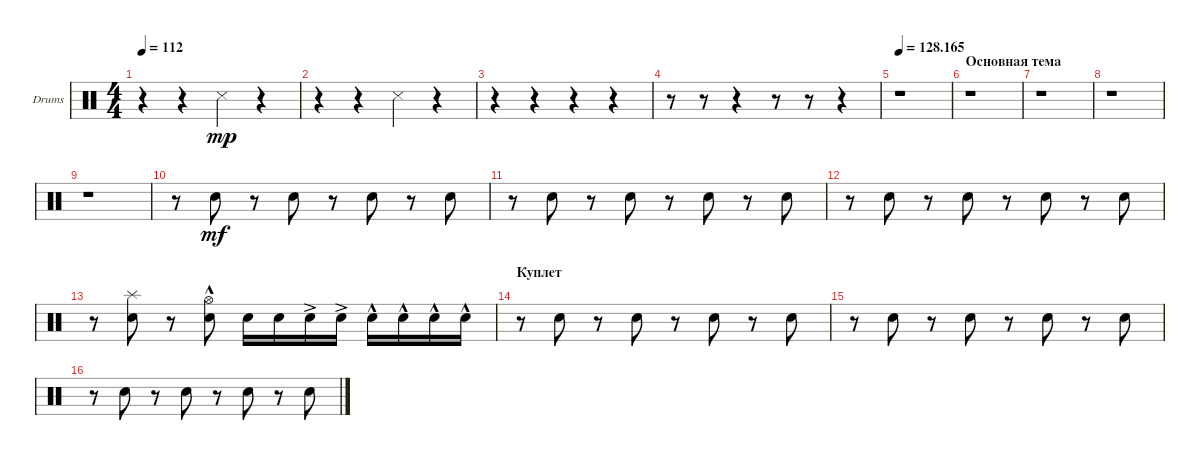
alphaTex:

\defaultSystemsLayout 4
\bracketExtendMode groupsimilarinstruments
\firstSystemTrackNameOrientation horizontal
\otherSystemsTrackNameOrientation horizontal
\track ("Drumkit" "Drums") {instrument percussion}
\staff {score}
\articulation defaults
\ts (4 4)
\tempo 112
\clef neutral
\scale
0.333333
\ks c
r.4{dy mp} r.4 "Snare (side stick) 3".4 r.4 |
\scale
0.333333 r.4 r.4 "Snare (side stick) 3".4 r.4 |
\scale
0.333333 r.4 r.4 r.4 r.4 |
\scale
0.333333 r.8 r.8 r.4 r.8 r.8 r.4 |
\tempo
128.165
\scale
0.333333 r.1 |
\section ("" "Основная тема")
\scale
0.333333 r.1 |
\scale
0.333333 r.1 |
\scale
0.333333 r.1 |
\scale
0.333333 r.1 |
\scale
0.333333 r.8 "Snare (hit) 2".8{dy mf} r.8 "Snare (hit) 2".8 r.8 "Snare (hit) 2".8 r.8 "Snare (hit) 2".8 |
\scale
0.333333 r.8 "Snare (hit) 2".8 r.8 "Snare (hit) 2".8 r.8 "Snare (hit) 2".8 r.8 "Snare (hit) 2".8 |
r.8 "Snare (hit) 2".8 r.8 "Snare (hit) 2".8 r.8 "Snare (hit) 2".8 r.8 "Snare (hit) 2".8 |
r.8 ("Snare (hit) 2" "Splash (hit)").8 r.8 ("Snare (hit) 2" "Hi-Hat (open)"{hac}).8 "Snare (hit) 2".16 "Snare (hit) 2".16 "Snare (hit) 2"{ac}.16 "Snare (hit) 2"{ac}.16 "Snare (hit) 2"{hac}.16 "Snare (hit) 2"{hac}.16 "Snare (hit) 2"{hac}.16 "Snare (hit) 2"{hac}.16 |
\section ("" "Куплет")
r.8 "Snare (hit) 2".8 r.8 "Snare (hit) 2".8 r.8 "Snare (hit) 2".8 r.8 "Snare (hit) 2".8 |
r.8 "Snare (hit) 2".8 r.8 "Snare (hit) 2".8 r.8 "Snare (hit) 2".8 r.8 "Snare (hit) 2".8 |
r.8 "Snare (hit) 2".8 r.8 "Snare (hit) 2".8 r.8 "Snare (hit) 2".8 r.8 "Snare (hit) 2".8
